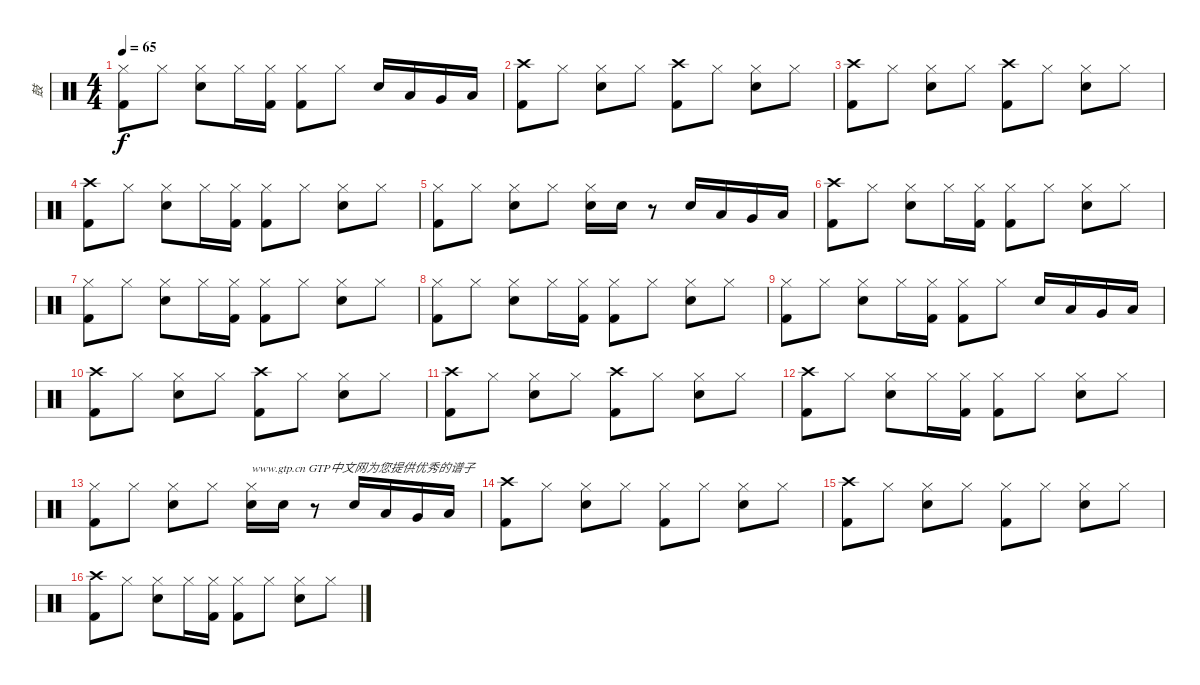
\track ("鼓" "鼓") {instrument percussion}
\staff {score}
\articulation defaults
\ts (4 4)
\tempo 65
\clef neutral
\ks c
("Kick (hit) 2" "Hi-Hat (closed)").8{dy f} "Hi-Hat (closed)".8 ("Snare (hit) 2" "Hi-Hat (closed)").8 "Hi-Hat (closed)".16 ("Kick (hit) 2" "Hi-Hat (closed)").16 ("Kick (hit) 2" "Hi-Hat (closed)").8 "Hi-Hat (closed)".8 "Snare (hit) 2".16 "Low Floor Tom (hit)".16 "Very Low Tom (hit)".16 "Low Tom (hit)".16 |
("Kick (hit) 2" "Crash high (hit)").8 "Hi-Hat (closed)".8 ("Snare (hit) 2" "Hi-Hat (closed)").8 "Hi-Hat (closed)".8 ("Kick (hit) 2" "Crash high (hit)").8 "Hi-Hat (closed)".8 ("Snare (hit) 2" "Hi-Hat (closed)").8 "Hi-Hat (closed)".8 |
("Kick (hit) 2" "Crash high (hit)").8 "Hi-Hat (closed)".8 ("Snare (hit) 2" "Hi-Hat (closed)").8 "Hi-Hat (closed)".8 ("Kick (hit) 2" "Crash high (hit)").8 "Hi-Hat (closed)".8 ("Snare (hit) 2" "Hi-Hat (closed)").8 "Hi-Hat (closed)".8 |
("Kick (hit) 2" "Crash high (hit)").8 "Hi-Hat (closed)".8 ("Snare (hit) 2" "Hi-Hat (closed)").8 "Hi-Hat (closed)".16 ("Kick (hit) 2" "Hi-Hat (closed)").16 ("Kick (hit) 2" "Hi-Hat (closed)").8 "Hi-Hat (closed)".8 ("Snare (hit) 2" "Hi-Hat (closed)").8 "Hi-Hat (closed)".8 |
("Kick (hit) 2" "Hi-Hat (closed)").8 "Hi-Hat (closed)".8 ("Snare (hit) 2" "Hi-Hat (closed)").8 "Hi-Hat (closed)".8 ("Snare (hit) 2" "Hi-Hat (closed)").16 "Snare (hit) 2".16 r.8 "Snare (hit) 2".16 "Low Floor Tom (hit)".16 "Very Low Tom (hit)".16 "Low Tom (hit)".16 |
("Kick (hit) 2" "Crash high (hit)").8 "Hi-Hat (closed)".8 ("Snare (hit) 2" "Hi-Hat (closed)").8 "Hi-Hat (closed)".16 ("Kick (hit) 2" "Hi-Hat (closed)").16 ("Kick (hit) 2" "Hi-Hat (closed)").8 "Hi-Hat (closed)".8 ("Snare (hit) 2" "Hi-Hat (closed)").8 "Hi-Hat (closed)".8 |
("Kick (hit) 2" "Hi-Hat (closed)").8 "Hi-Hat (closed)".8 ("Snare (hit) 2" "Hi-Hat (closed)").8 "Hi-Hat (closed)".16 ("Kick (hit) 2" "Hi-Hat (closed)").16 ("Kick (hit) 2" "Hi-Hat (closed)").8 "Hi-Hat (closed)".8 ("Snare (hit) 2" "Hi-Hat (closed)").8 "Hi-Hat (closed)".8 |
("Kick (hit) 2" "Hi-Hat (closed)").8 "Hi-Hat (closed)".8 ("Snare (hit) 2" "Hi-Hat (closed)").8 "Hi-Hat (closed)".16 ("Kick (hit) 2" "Hi-Hat (closed)").16 ("Kick (hit) 2" "Hi-Hat (closed)").8 "Hi-Hat (closed)".8 ("Snare (hit) 2" "Hi-Hat (closed)").8 "Hi-Hat (closed)".8 |
("Kick (hit) 2" "Hi-Hat (closed)").8 "Hi-Hat (closed)".8 ("Snare (hit) 2" "Hi-Hat (closed)").8 "Hi-Hat (closed)".16 ("Kick (hit) 2" "Hi-Hat (closed)").16 ("Kick (hit) 2" "Hi-Hat (closed)").8 "Hi-Hat (closed)".8 "Snare (hit) 2".16 "Low Floor Tom (hit)".16 "Very Low Tom (hit)".16 "Low Tom (hit)".16 |
("Kick (hit) 2" "Crash high (hit)").8 "Hi-Hat (closed)".8 ("Snare (hit) 2" "Hi-Hat (closed)").8 "Hi-Hat (closed)".8 ("Kick (hit) 2" "Crash high (hit)").8 "Hi-Hat (closed)".8 ("Snare (hit) 2" "Hi-Hat (closed)").8 "Hi-Hat (closed)".8 |
("Kick (hit) 2" "Crash high (hit)").8 "Hi-Hat (closed)".8 ("Snare (hit) 2" "Hi-Hat (closed)").8 "Hi-Hat (closed)".8 ("Kick (hit) 2" "Crash high (hit)").8 "Hi-Hat (closed)".8 ("Snare (hit) 2" "Hi-Hat (closed)").8 "Hi-Hat (closed)".8 |
("Kick (hit) 2" "Crash high (hit)").8 "Hi-Hat (closed)".8 ("Snare (hit) 2" "Hi-Hat (closed)").8 "Hi-Hat (closed)".16 ("Kick (hit) 2" "Hi-Hat (closed)").16 ("Kick (hit) 2" "Hi-Hat (closed)").8 "Hi-Hat (closed)".8 ("Snare (hit) 2" "Hi-Hat (closed)").8 "Hi-Hat (closed)".8 |
("Kick (hit) 2" "Hi-Hat (closed)").8 "Hi-Hat (closed)".8 ("Snare (hit) 2" "Hi-Hat (closed)").8 "Hi-Hat (closed)".8 ("Snare (hit) 2" "Hi-Hat (closed)").16{txt "www.gtp.cn GTP中文网为您提供优秀的谱子"} "Snare (hit) 2".16 r.8 "Snare (hit) 2".16 "Low Floor Tom (hit)".16 "Very Low Tom (hit)".16 "Low Tom (hit)".16 |
("Kick (hit) 2" "Crash high (hit)").8 "Hi-Hat (closed)".8 ("Snare (hit) 2" "Hi-Hat (closed)").8 "Hi-Hat (closed)".8 ("Kick (hit) 2" "Hi-Hat (closed)").8 "Hi-Hat (closed)".8 ("Snare (hit) 2" "Hi-Hat (closed)").8 "Hi-Hat (closed)".8 |
("Kick (hit) 2" "Crash high (hit)").8 "Hi-Hat (closed)".8 ("Snare (hit) 2" "Hi-Hat (closed)").8 "Hi-Hat (closed)".8 ("Kick (hit) 2" "Hi-Hat (closed)").8 "Hi-Hat (closed)".8 ("Snare (hit) 2" "Hi-Hat (closed)").8 "Hi-Hat (closed)".8 |
("Kick (hit) 2" "Crash high (hit)").8 "Hi-Hat (closed)".8 ("Snare (hit) 2" "Hi-Hat (closed)").8 "Hi-Hat (closed)".16 ("Kick (hit) 2" "Hi-Hat (closed)").16 ("Kick (hit) 2" "Hi-Hat (closed)").8 "Hi-Hat (closed)".8 ("Snare (hit) 2" "Hi-Hat (closed)").8 "Hi-Hat (closed)".8
